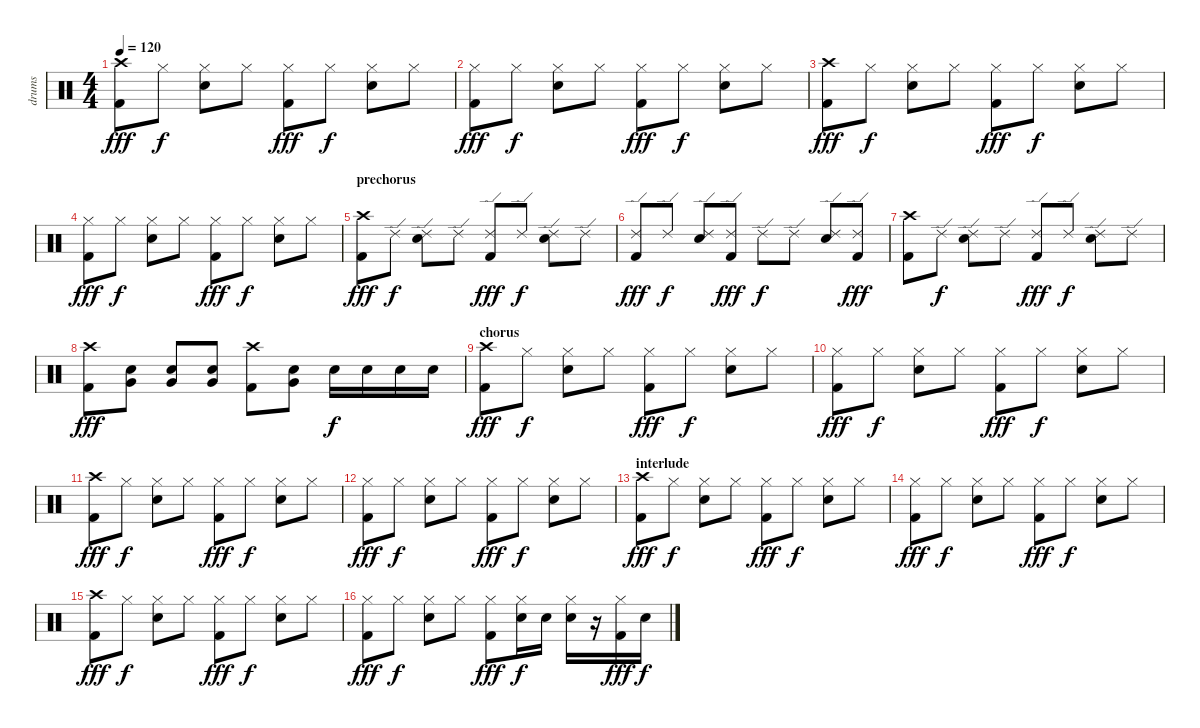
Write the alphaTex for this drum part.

\track ("drums" "drums") {instrument percussion}
\staff {score}
\articulation defaults
\ts (4 4)
\tempo 120
\clef neutral
\ks c
("Crash high (hit)" "Kick (hit) 2").8{dy fff} "Hi-Hat (closed)".8{dy f} ("Hi-Hat (closed)" "Snare (hit) 2").8 "Hi-Hat (closed)".8 ("Hi-Hat (closed)" "Kick (hit) 2").8{dy fff} "Hi-Hat (closed)".8{dy f} ("Hi-Hat (closed)" "Snare (hit) 2").8 "Hi-Hat (closed)".8 |
("Hi-Hat (closed)" "Kick (hit) 2").8{dy fff} "Hi-Hat (closed)".8{dy f} ("Hi-Hat (closed)" "Snare (hit) 2").8 "Hi-Hat (closed)".8 ("Hi-Hat (closed)" "Kick (hit) 2").8{dy fff} "Hi-Hat (closed)".8{dy f} ("Hi-Hat (closed)" "Snare (hit) 2").8 "Hi-Hat (closed)".8 |
("Crash high (hit)" "Kick (hit) 2").8{dy fff} "Hi-Hat (closed)".8{dy f} ("Hi-Hat (closed)" "Snare (hit) 2").8 "Hi-Hat (closed)".8 ("Hi-Hat (closed)" "Kick (hit) 2").8{dy fff} "Hi-Hat (closed)".8{dy f} ("Hi-Hat (closed)" "Snare (hit) 2").8 "Hi-Hat (closed)".8 |
("Hi-Hat (closed)" "Kick (hit) 2").8{dy fff} "Hi-Hat (closed)".8{dy f} ("Hi-Hat (closed)" "Snare (hit) 2").8 "Hi-Hat (closed)".8 ("Hi-Hat (closed)" "Kick (hit) 2").8{dy fff} "Hi-Hat (closed)".8{dy f} ("Hi-Hat (closed)" "Snare (hit) 2").8 "Hi-Hat (closed)".8 |
\section ("" "prechorus")
("Crash high (hit)" "Kick (hit) 2").8{dy fff} "Ride (edge) 2".8{dy f} ("Ride (edge) 2" "Snare (hit) 2").8 "Ride (edge) 2".8 ("Ride (edge) 2" "Kick (hit) 2").8{dy fff} "Ride (edge) 2".8{dy f} ("Ride (edge) 2" "Snare (hit) 2").8 "Ride (edge) 2".8 |
("Ride (edge) 2" "Kick (hit) 2").8{dy fff} "Ride (edge) 2".8{dy f} ("Ride (edge) 2" "Snare (hit) 2").8 ("Ride (edge) 2" "Kick (hit) 2").8{dy fff} "Ride (edge) 2".8{dy f} "Ride (edge) 2".8 ("Ride (edge) 2" "Snare (hit) 2").8 ("Ride (edge) 2" "Kick (hit) 2").8{dy fff} |
("Crash high (hit)" "Kick (hit) 2").8 "Ride (edge) 2".8{dy f} ("Ride (edge) 2" "Snare (hit) 2").8 "Ride (edge) 2".8 ("Ride (edge) 2" "Kick (hit) 2").8{dy fff} "Ride (edge) 2".8{dy f} ("Ride (edge) 2" "Snare (hit) 2").8 "Ride (edge) 2".8 |
("Crash high (hit)" "Kick (hit) 2").8{dy fff} ("Very Low Tom (hit)" "Snare (hit) 2").8 ("Very Low Tom (hit)" "Snare (hit) 2").8 ("Very Low Tom (hit)" "Snare (hit) 2").8 ("Crash high (hit)" "Kick (hit) 2").8 ("Very Low Tom (hit)" "Snare (hit) 2").8 "Snare (hit) 2".16{dy f} "Snare (hit) 2".16 "Snare (hit) 2".16 "Snare (hit) 2".16 |
\section ("" "chorus")
("Crash high (hit)" "Kick (hit) 2").8{dy fff} "Hi-Hat (closed)".8{dy f} ("Hi-Hat (closed)" "Snare (hit) 2").8 "Hi-Hat (closed)".8 ("Hi-Hat (closed)" "Kick (hit) 2").8{dy fff} "Hi-Hat (closed)".8{dy f} ("Hi-Hat (closed)" "Snare (hit) 2").8 "Hi-Hat (closed)".8 |
("Hi-Hat (closed)" "Kick (hit) 2").8{dy fff} "Hi-Hat (closed)".8{dy f} ("Hi-Hat (closed)" "Snare (hit) 2").8 "Hi-Hat (closed)".8 ("Hi-Hat (closed)" "Kick (hit) 2").8{dy fff} "Hi-Hat (closed)".8{dy f} ("Hi-Hat (closed)" "Snare (hit) 2").8 "Hi-Hat (closed)".8 |
("Crash high (hit)" "Kick (hit) 2").8{dy fff} "Hi-Hat (closed)".8{dy f} ("Hi-Hat (closed)" "Snare (hit) 2").8 "Hi-Hat (closed)".8 ("Hi-Hat (closed)" "Kick (hit) 2").8{dy fff} "Hi-Hat (closed)".8{dy f} ("Hi-Hat (closed)" "Snare (hit) 2").8 "Hi-Hat (closed)".8 |
("Hi-Hat (closed)" "Kick (hit) 2").8{dy fff} "Hi-Hat (closed)".8{dy f} ("Hi-Hat (closed)" "Snare (hit) 2").8 "Hi-Hat (closed)".8 ("Hi-Hat (closed)" "Kick (hit) 2").8{dy fff} "Hi-Hat (closed)".8{dy f} ("Hi-Hat (closed)" "Snare (hit) 2").8 "Hi-Hat (closed)".8 |
\section ("" "interlude")
("Crash high (hit)" "Kick (hit) 2").8{dy fff} "Hi-Hat (closed)".8{dy f} ("Hi-Hat (closed)" "Snare (hit) 2").8 "Hi-Hat (closed)".8 ("Hi-Hat (closed)" "Kick (hit) 2").8{dy fff} "Hi-Hat (closed)".8{dy f} ("Hi-Hat (closed)" "Snare (hit) 2").8 "Hi-Hat (closed)".8 |
("Hi-Hat (closed)" "Kick (hit) 2").8{dy fff} "Hi-Hat (closed)".8{dy f} ("Hi-Hat (closed)" "Snare (hit) 2").8 "Hi-Hat (closed)".8 ("Hi-Hat (closed)" "Kick (hit) 2").8{dy fff} "Hi-Hat (closed)".8{dy f} ("Hi-Hat (closed)" "Snare (hit) 2").8 "Hi-Hat (closed)".8 |
("Crash high (hit)" "Kick (hit) 2").8{dy fff} "Hi-Hat (closed)".8{dy f} ("Hi-Hat (closed)" "Snare (hit) 2").8 "Hi-Hat (closed)".8 ("Hi-Hat (closed)" "Kick (hit) 2").8{dy fff} "Hi-Hat (closed)".8{dy f} ("Hi-Hat (closed)" "Snare (hit) 2").8 "Hi-Hat (closed)".8 |
("Hi-Hat (closed)" "Kick (hit) 2").8{dy fff} "Hi-Hat (closed)".8{dy f} ("Hi-Hat (closed)" "Snare (hit) 2").8 "Hi-Hat (closed)".8 ("Hi-Hat (closed)" "Kick (hit) 2").8{dy fff} ("Hi-Hat (closed)" "Snare (hit) 2").16{dy f} "Snare (hit) 2".16 ("Hi-Hat (closed)" "Snare (hit) 2").16 r.16 ("Hi-Hat (closed)" "Kick (hit) 2").16{dy fff} "Snare (hit) 2".16{dy f}
